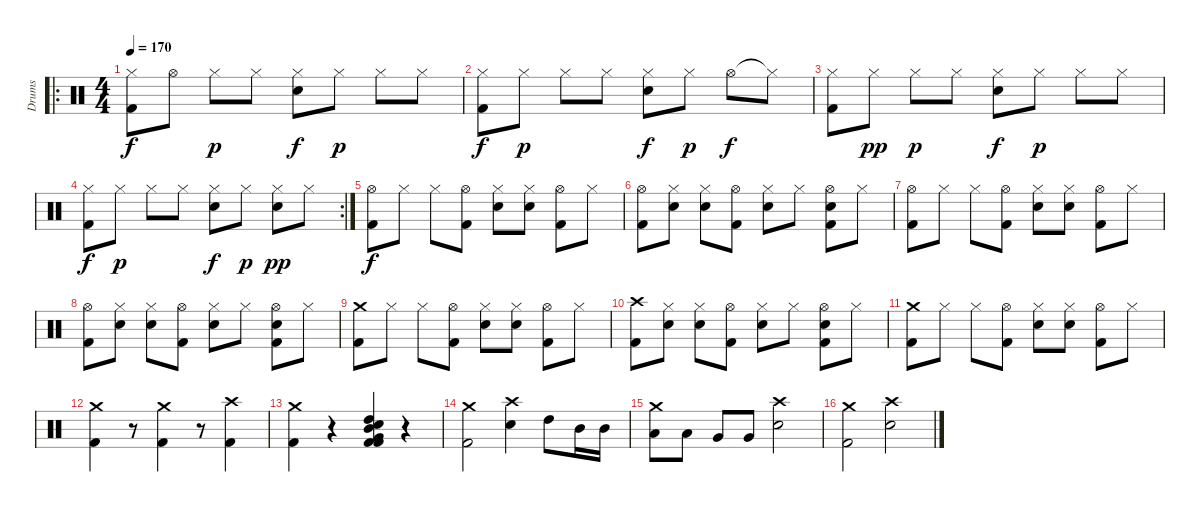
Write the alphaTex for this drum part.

\track ("Drums" "Drums") {instrument percussion}
\staff {score}
\articulation defaults
\ro
\ts (4 4)
\tempo 170
\clef neutral
\ks c
("Hi-Hat (closed)" "Kick (hit) 2").8{dy f} "Hi-Hat (open)".8 "Hi-Hat (closed)".8{dy p} "Hi-Hat (closed)".8 ("Hi-Hat (closed)" "Electric Snare (hit)").8{dy f} "Hi-Hat (closed)".8{dy p} "Hi-Hat (closed)".8 "Hi-Hat (closed)".8 |
("Hi-Hat (closed)" "Kick (hit) 2").8{dy f} "Hi-Hat (closed)".8{dy p} "Hi-Hat (closed)".8 "Hi-Hat (closed)".8 ("Hi-Hat (closed)" "Electric Snare (hit)").8{dy f} "Hi-Hat (closed)".8{dy p} "Hi-Hat (open)".8{dy f} "Hi-Hat (closed)"{t}.8 |
("Hi-Hat (closed)" "Kick (hit) 2").8 "Hi-Hat (closed)".8{dy pp} "Hi-Hat (closed)".8{dy p} "Hi-Hat (closed)".8 ("Hi-Hat (closed)" "Electric Snare (hit)").8{dy f} "Hi-Hat (closed)".8{dy p} "Hi-Hat (closed)".8 "Hi-Hat (closed)".8 |
\rc 2
("Hi-Hat (closed)" "Kick (hit) 2").8{dy f} "Hi-Hat (closed)".8{dy p} "Hi-Hat (closed)".8 "Hi-Hat (closed)".8 ("Hi-Hat (closed)" "Electric Snare (hit)").8{dy f} "Hi-Hat (closed)".8{dy p} ("Hi-Hat (closed)" "Electric Snare (hit)").8{dy pp} "Hi-Hat (closed)".8 |
("Hi-Hat (open)" "Kick (hit) 2").8{dy f} "Hi-Hat (closed)".8 "Hi-Hat (closed)".8 ("Hi-Hat (open)" "Kick (hit) 2").8 ("Hi-Hat (closed)" "Electric Snare (hit)").8 ("Hi-Hat (closed)" "Electric Snare (hit)").8 ("Hi-Hat (open)" "Kick (hit) 2").8 "Hi-Hat (closed)".8 |
("Hi-Hat (open)" "Kick (hit) 2").8 ("Hi-Hat (closed)" "Electric Snare (hit)").8 ("Hi-Hat (closed)" "Electric Snare (hit)").8 ("Hi-Hat (open)" "Kick (hit) 2").8 ("Hi-Hat (closed)" "Electric Snare (hit)").8 "Hi-Hat (closed)".8 ("Hi-Hat (open)" "Electric Snare (hit)" "Kick (hit) 2").8 "Hi-Hat (closed)".8 |
("Hi-Hat (open)" "Kick (hit) 2").8 "Hi-Hat (closed)".8 "Hi-Hat (closed)".8 ("Hi-Hat (open)" "Kick (hit) 2").8 ("Hi-Hat (closed)" "Electric Snare (hit)").8 ("Hi-Hat (closed)" "Electric Snare (hit)").8 ("Hi-Hat (open)" "Kick (hit) 2").8 "Hi-Hat (closed)".8 |
("Hi-Hat (open)" "Kick (hit) 2").8 ("Hi-Hat (closed)" "Electric Snare (hit)").8 ("Hi-Hat (closed)" "Electric Snare (hit)").8 ("Hi-Hat (open)" "Kick (hit) 2").8 ("Hi-Hat (closed)" "Electric Snare (hit)").8 "Hi-Hat (closed)".8 ("Hi-Hat (open)" "Electric Snare (hit)" "Kick (hit) 2").8 "Hi-Hat (closed)".8 |
("Crash medium (hit)" "Kick (hit) 2").8 "Hi-Hat (closed)".8 "Hi-Hat (closed)".8 ("Hi-Hat (open)" "Kick (hit) 2").8 ("Hi-Hat (closed)" "Electric Snare (hit)").8 ("Hi-Hat (closed)" "Electric Snare (hit)").8 ("Hi-Hat (open)" "Kick (hit) 2").8 "Hi-Hat (closed)".8 |
("Crash high (hit)" "Kick (hit) 2").8 ("Hi-Hat (closed)" "Electric Snare (hit)").8 ("Hi-Hat (closed)" "Electric Snare (hit)").8 ("Hi-Hat (open)" "Kick (hit) 2").8 ("Hi-Hat (closed)" "Electric Snare (hit)").8 "Hi-Hat (closed)".8 ("Hi-Hat (open)" "Electric Snare (hit)" "Kick (hit) 2").8 "Hi-Hat (closed)".8 |
("Crash medium (hit)" "Kick (hit) 2").8 "Hi-Hat (closed)".8 "Hi-Hat (closed)".8 ("Hi-Hat (open)" "Kick (hit) 2").8 ("Hi-Hat (closed)" "Electric Snare (hit)").8 ("Hi-Hat (closed)" "Electric Snare (hit)").8 ("Hi-Hat (open)" "Kick (hit) 2").8 "Hi-Hat (closed)".8 |
("Crash medium (hit)" "Kick (hit) 2").4 r.8{volume 0} ("Crash medium (hit)" "Kick (hit) 2").4{volume 10} r.8{volume 0} ("Crash high (hit)" "Kick (hit) 2").4{volume 10} |
("Crash medium (hit)" "Kick (hit) 2").4 r.4 ("Very Low Tom (hit)" "Electric Snare (hit)" "Mid Tom (hit)" "High Tom (hit)" "Kick (hit) 2" "Kick (hit) 2").4 r.4 |
("Crash medium (hit)" "Kick (hit) 2").2 ("Crash high (hit)" "Electric Snare (hit)").4 "High Tom (hit)".8 "Mid Tom (hit)".16 "Mid Tom (hit)".16 |
("Crash medium (hit)" "Low Tom (hit)").8 "Low Tom (hit)".8 "Very Low Tom (hit)".8 "Very Low Tom (hit)".8 ("Crash high (hit)" "Electric Snare (hit)").2 |
("Crash medium (hit)" "Kick (hit) 2").2 ("Crash high (hit)" "Electric Snare (hit)").2
